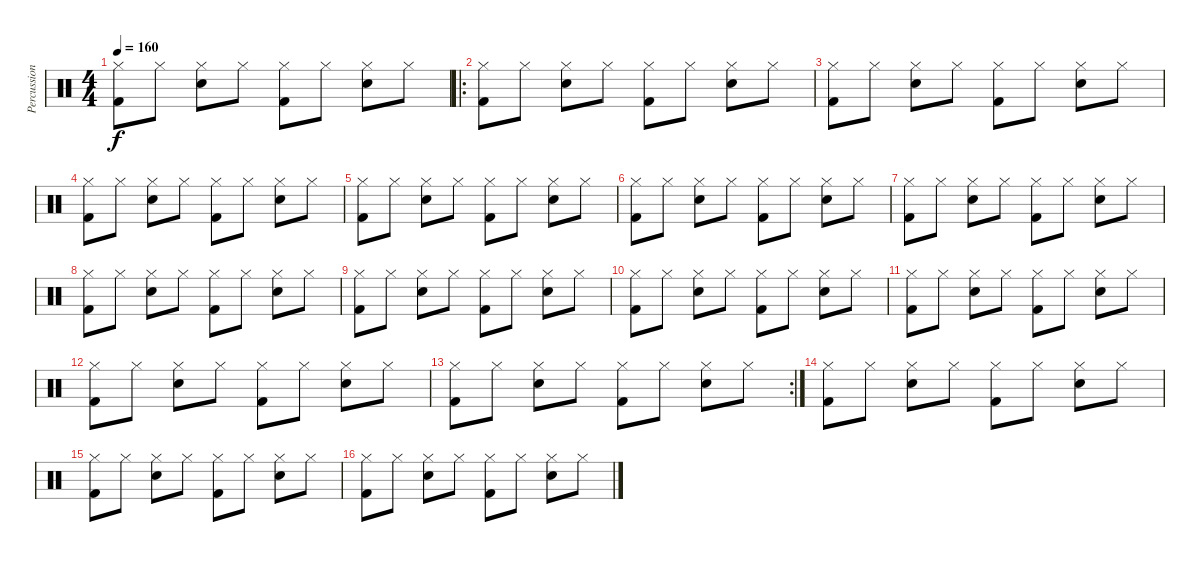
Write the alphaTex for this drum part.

\track ("Percussion" "Percussion") {instrument percussion}
\staff {score}
\articulation defaults
\ts (4 4)
\tempo 160
\clef neutral
\ks c
("Hi-Hat (closed)" "Kick (hit) 2").8{dy f} "Hi-Hat (closed)".8 ("Hi-Hat (closed)" "Electric Snare (hit)").8 "Hi-Hat (closed)".8 ("Hi-Hat (closed)" "Kick (hit) 2").8 "Hi-Hat (closed)".8 ("Hi-Hat (closed)" "Electric Snare (hit)").8 "Hi-Hat (closed)".8 |
\ro
("Hi-Hat (closed)" "Kick (hit) 2").8 "Hi-Hat (closed)".8 ("Hi-Hat (closed)" "Electric Snare (hit)").8 "Hi-Hat (closed)".8 ("Hi-Hat (closed)" "Kick (hit) 2").8 "Hi-Hat (closed)".8 ("Hi-Hat (closed)" "Electric Snare (hit)").8 "Hi-Hat (closed)".8 |
("Hi-Hat (closed)" "Kick (hit) 2").8 "Hi-Hat (closed)".8 ("Hi-Hat (closed)" "Electric Snare (hit)").8 "Hi-Hat (closed)".8 ("Hi-Hat (closed)" "Kick (hit) 2").8 "Hi-Hat (closed)".8 ("Hi-Hat (closed)" "Electric Snare (hit)").8 "Hi-Hat (closed)".8 |
("Hi-Hat (closed)" "Kick (hit) 2").8 "Hi-Hat (closed)".8 ("Hi-Hat (closed)" "Electric Snare (hit)").8 "Hi-Hat (closed)".8 ("Hi-Hat (closed)" "Kick (hit) 2").8 "Hi-Hat (closed)".8 ("Hi-Hat (closed)" "Electric Snare (hit)").8 "Hi-Hat (closed)".8 |
("Hi-Hat (closed)" "Kick (hit) 2").8 "Hi-Hat (closed)".8 ("Hi-Hat (closed)" "Electric Snare (hit)").8 "Hi-Hat (closed)".8 ("Hi-Hat (closed)" "Kick (hit) 2").8 "Hi-Hat (closed)".8 ("Hi-Hat (closed)" "Electric Snare (hit)").8 "Hi-Hat (closed)".8 |
("Hi-Hat (closed)" "Kick (hit) 2").8 "Hi-Hat (closed)".8 ("Hi-Hat (closed)" "Electric Snare (hit)").8 "Hi-Hat (closed)".8 ("Hi-Hat (closed)" "Kick (hit) 2").8 "Hi-Hat (closed)".8 ("Hi-Hat (closed)" "Electric Snare (hit)").8 "Hi-Hat (closed)".8 |
("Hi-Hat (closed)" "Kick (hit) 2").8 "Hi-Hat (closed)".8 ("Hi-Hat (closed)" "Electric Snare (hit)").8 "Hi-Hat (closed)".8 ("Hi-Hat (closed)" "Kick (hit) 2").8 "Hi-Hat (closed)".8 ("Hi-Hat (closed)" "Electric Snare (hit)").8 "Hi-Hat (closed)".8 |
("Hi-Hat (closed)" "Kick (hit) 2").8 "Hi-Hat (closed)".8 ("Hi-Hat (closed)" "Electric Snare (hit)").8 "Hi-Hat (closed)".8 ("Hi-Hat (closed)" "Kick (hit) 2").8 "Hi-Hat (closed)".8 ("Hi-Hat (closed)" "Electric Snare (hit)").8 "Hi-Hat (closed)".8 |
("Hi-Hat (closed)" "Kick (hit) 2").8 "Hi-Hat (closed)".8 ("Hi-Hat (closed)" "Electric Snare (hit)").8 "Hi-Hat (closed)".8 ("Hi-Hat (closed)" "Kick (hit) 2").8 "Hi-Hat (closed)".8 ("Hi-Hat (closed)" "Electric Snare (hit)").8 "Hi-Hat (closed)".8 |
("Hi-Hat (closed)" "Kick (hit) 2").8 "Hi-Hat (closed)".8 ("Hi-Hat (closed)" "Electric Snare (hit)").8 "Hi-Hat (closed)".8 ("Hi-Hat (closed)" "Kick (hit) 2").8 "Hi-Hat (closed)".8 ("Hi-Hat (closed)" "Electric Snare (hit)").8 "Hi-Hat (closed)".8 |
("Hi-Hat (closed)" "Kick (hit) 2").8 "Hi-Hat (closed)".8 ("Hi-Hat (closed)" "Electric Snare (hit)").8 "Hi-Hat (closed)".8 ("Hi-Hat (closed)" "Kick (hit) 2").8 "Hi-Hat (closed)".8 ("Hi-Hat (closed)" "Electric Snare (hit)").8 "Hi-Hat (closed)".8 |
("Hi-Hat (closed)" "Kick (hit) 2").8 "Hi-Hat (closed)".8 ("Hi-Hat (closed)" "Electric Snare (hit)").8 "Hi-Hat (closed)".8 ("Hi-Hat (closed)" "Kick (hit) 2").8 "Hi-Hat (closed)".8 ("Hi-Hat (closed)" "Electric Snare (hit)").8 "Hi-Hat (closed)".8 |
\rc 2
("Hi-Hat (closed)" "Kick (hit) 2").8 "Hi-Hat (closed)".8 ("Hi-Hat (closed)" "Electric Snare (hit)").8 "Hi-Hat (closed)".8 ("Hi-Hat (closed)" "Kick (hit) 2").8 "Hi-Hat (closed)".8 ("Hi-Hat (closed)" "Electric Snare (hit)").8 "Hi-Hat (closed)".8 |
("Hi-Hat (closed)" "Kick (hit) 2").8 "Hi-Hat (closed)".8 ("Hi-Hat (closed)" "Electric Snare (hit)").8 "Hi-Hat (closed)".8 ("Hi-Hat (closed)" "Kick (hit) 2").8 "Hi-Hat (closed)".8 ("Hi-Hat (closed)" "Electric Snare (hit)").8 "Hi-Hat (closed)".8 |
("Hi-Hat (closed)" "Kick (hit) 2").8 "Hi-Hat (closed)".8 ("Hi-Hat (closed)" "Electric Snare (hit)").8 "Hi-Hat (closed)".8 ("Hi-Hat (closed)" "Kick (hit) 2").8 "Hi-Hat (closed)".8 ("Hi-Hat (closed)" "Electric Snare (hit)").8 "Hi-Hat (closed)".8 |
("Hi-Hat (closed)" "Kick (hit) 2").8 "Hi-Hat (closed)".8 ("Hi-Hat (closed)" "Electric Snare (hit)").8 "Hi-Hat (closed)".8 ("Hi-Hat (closed)" "Kick (hit) 2").8 "Hi-Hat (closed)".8 ("Hi-Hat (closed)" "Electric Snare (hit)").8 "Hi-Hat (closed)".8
